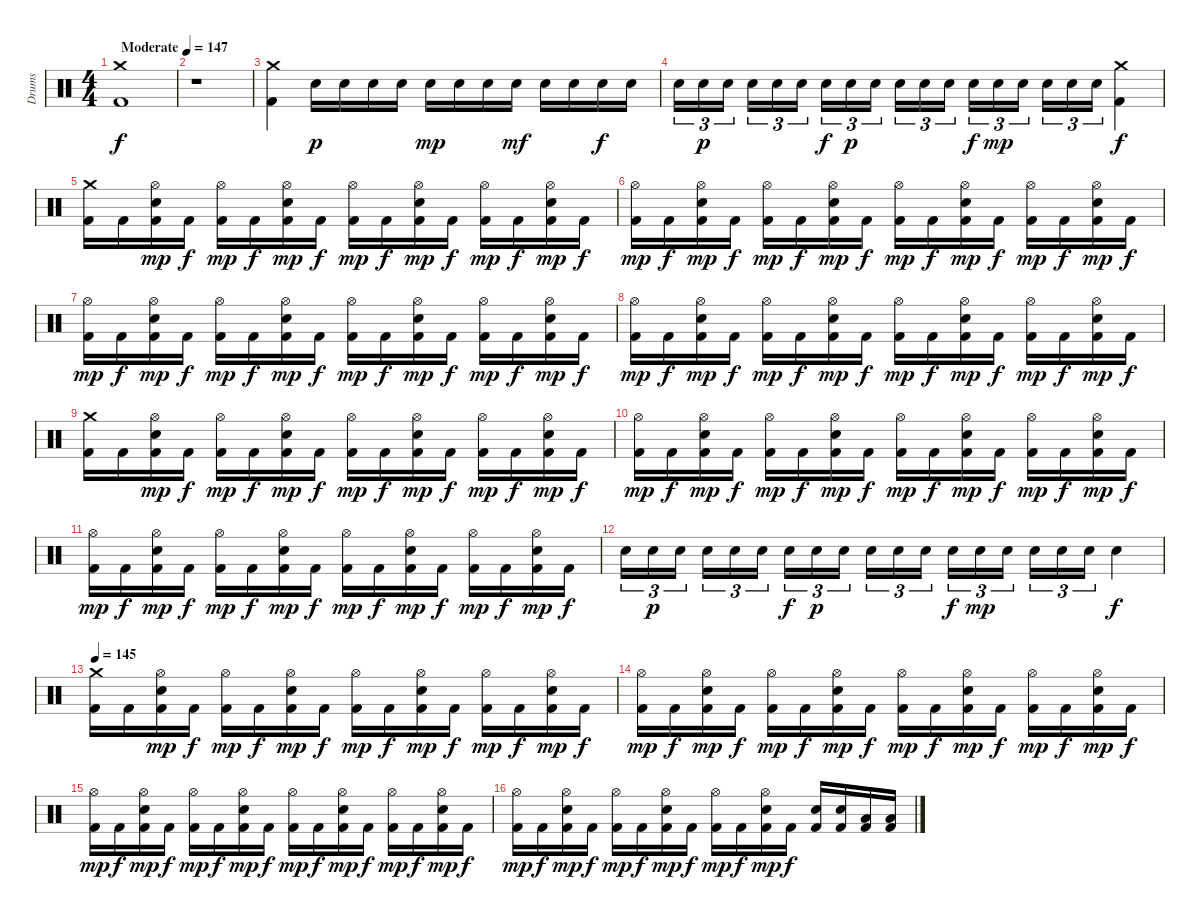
\track ("Drums" "Drums") {instrument percussion}
\staff {score}
\articulation defaults
\ts (4 4)
\tempo (147 "Moderate")
\clef neutral
\ks c
("Crash medium (hit)" "Kick (hit) 2").1{dy f} |
r.1 |
("Crash medium (hit)" "Kick (hit) 2").4 "Electric Snare (hit)".16{dy p} "Electric Snare (hit)".16 "Electric Snare (hit)".16 "Electric Snare (hit)".16 "Electric Snare (hit)".16{dy mp} "Electric Snare (hit)".16 "Electric Snare (hit)".16 "Electric Snare (hit)".16{dy mf} "Electric Snare (hit)".16 "Electric Snare (hit)".16 "Electric Snare (hit)".16{dy f} "Electric Snare (hit)".16 |
"Electric Snare (hit)".16{tu (3 2)} "Electric Snare (hit)".16{tu (3 2) dy p} "Electric Snare (hit)".16{tu (3 2) beam splitsecondary} "Electric Snare (hit)".16{tu (3 2)} "Electric Snare (hit)".16{tu (3 2)} "Electric Snare (hit)".16{tu (3 2)} "Electric Snare (hit)".16{tu (3 2) dy f} "Electric Snare (hit)".16{tu (3 2) dy p} "Electric Snare (hit)".16{tu (3 2) beam splitsecondary} "Electric Snare (hit)".16{tu (3 2)} "Electric Snare (hit)".16{tu (3 2)} "Electric Snare (hit)".16{tu (3 2)} "Electric Snare (hit)".16{tu (3 2) dy f} "Electric Snare (hit)".16{tu (3 2) dy mp} "Electric Snare (hit)".16{tu (3 2) beam splitsecondary} "Electric Snare (hit)".16{tu (3 2)} "Electric Snare (hit)".16{tu (3 2)} "Electric Snare (hit)".16{tu (3 2)} ("Crash medium (hit)" "Kick (hit) 2").4{dy f} |
("Crash medium (hit)" "Kick (hit) 2").16 "Kick (hit) 2".16 ("Hi-Hat (open)" "Kick (hit) 2" "Electric Snare (hit)").16{dy mp} "Kick (hit) 2".16{dy f} ("Hi-Hat (open)" "Kick (hit) 2").16{dy mp} "Kick (hit) 2".16{dy f} ("Hi-Hat (open)" "Kick (hit) 2" "Electric Snare (hit)").16{dy mp} "Kick (hit) 2".16{dy f} ("Hi-Hat (open)" "Kick (hit) 2").16{dy mp} "Kick (hit) 2".16{dy f} ("Hi-Hat (open)" "Kick (hit) 2" "Electric Snare (hit)").16{dy mp} "Kick (hit) 2".16{dy f} ("Hi-Hat (open)" "Kick (hit) 2").16{dy mp} "Kick (hit) 2".16{dy f} ("Hi-Hat (open)" "Kick (hit) 2" "Electric Snare (hit)").16{dy mp} "Kick (hit) 2".16{dy f} |
("Hi-Hat (open)" "Kick (hit) 2").16{dy mp} "Kick (hit) 2".16{dy f} ("Hi-Hat (open)" "Kick (hit) 2" "Electric Snare (hit)").16{dy mp} "Kick (hit) 2".16{dy f} ("Hi-Hat (open)" "Kick (hit) 2").16{dy mp} "Kick (hit) 2".16{dy f} ("Hi-Hat (open)" "Kick (hit) 2" "Electric Snare (hit)").16{dy mp} "Kick (hit) 2".16{dy f} ("Hi-Hat (open)" "Kick (hit) 2").16{dy mp} "Kick (hit) 2".16{dy f} ("Hi-Hat (open)" "Kick (hit) 2" "Electric Snare (hit)").16{dy mp} "Kick (hit) 2".16{dy f} ("Hi-Hat (open)" "Kick (hit) 2").16{dy mp} "Kick (hit) 2".16{dy f} ("Hi-Hat (open)" "Kick (hit) 2" "Electric Snare (hit)").16{dy mp} "Kick (hit) 2".16{dy f} |
("Hi-Hat (open)" "Kick (hit) 2").16{dy mp} "Kick (hit) 2".16{dy f} ("Hi-Hat (open)" "Kick (hit) 2" "Electric Snare (hit)").16{dy mp} "Kick (hit) 2".16{dy f} ("Hi-Hat (open)" "Kick (hit) 2").16{dy mp} "Kick (hit) 2".16{dy f} ("Hi-Hat (open)" "Kick (hit) 2" "Electric Snare (hit)").16{dy mp} "Kick (hit) 2".16{dy f} ("Hi-Hat (open)" "Kick (hit) 2").16{dy mp} "Kick (hit) 2".16{dy f} ("Hi-Hat (open)" "Kick (hit) 2" "Electric Snare (hit)").16{dy mp} "Kick (hit) 2".16{dy f} ("Hi-Hat (open)" "Kick (hit) 2").16{dy mp} "Kick (hit) 2".16{dy f} ("Hi-Hat (open)" "Kick (hit) 2" "Electric Snare (hit)").16{dy mp} "Kick (hit) 2".16{dy f} |
("Hi-Hat (open)" "Kick (hit) 2").16{dy mp} "Kick (hit) 2".16{dy f} ("Hi-Hat (open)" "Kick (hit) 2" "Electric Snare (hit)").16{dy mp} "Kick (hit) 2".16{dy f} ("Hi-Hat (open)" "Kick (hit) 2").16{dy mp} "Kick (hit) 2".16{dy f} ("Hi-Hat (open)" "Kick (hit) 2" "Electric Snare (hit)").16{dy mp} "Kick (hit) 2".16{dy f} ("Hi-Hat (open)" "Kick (hit) 2").16{dy mp} "Kick (hit) 2".16{dy f} ("Hi-Hat (open)" "Kick (hit) 2" "Electric Snare (hit)").16{dy mp} "Kick (hit) 2".16{dy f} ("Hi-Hat (open)" "Kick (hit) 2").16{dy mp} "Kick (hit) 2".16{dy f} ("Hi-Hat (open)" "Kick (hit) 2" "Electric Snare (hit)").16{dy mp} "Kick (hit) 2".16{dy f} |
("Crash medium (hit)" "Kick (hit) 2").16 "Kick (hit) 2".16 ("Hi-Hat (open)" "Kick (hit) 2" "Electric Snare (hit)").16{dy mp} "Kick (hit) 2".16{dy f} ("Hi-Hat (open)" "Kick (hit) 2").16{dy mp} "Kick (hit) 2".16{dy f} ("Hi-Hat (open)" "Kick (hit) 2" "Electric Snare (hit)").16{dy mp} "Kick (hit) 2".16{dy f} ("Hi-Hat (open)" "Kick (hit) 2").16{dy mp} "Kick (hit) 2".16{dy f} ("Hi-Hat (open)" "Kick (hit) 2" "Electric Snare (hit)").16{dy mp} "Kick (hit) 2".16{dy f} ("Hi-Hat (open)" "Kick (hit) 2").16{dy mp} "Kick (hit) 2".16{dy f} ("Hi-Hat (open)" "Kick (hit) 2" "Electric Snare (hit)").16{dy mp} "Kick (hit) 2".16{dy f} |
("Hi-Hat (open)" "Kick (hit) 2").16{dy mp} "Kick (hit) 2".16{dy f} ("Hi-Hat (open)" "Kick (hit) 2" "Electric Snare (hit)").16{dy mp} "Kick (hit) 2".16{dy f} ("Hi-Hat (open)" "Kick (hit) 2").16{dy mp} "Kick (hit) 2".16{dy f} ("Hi-Hat (open)" "Kick (hit) 2" "Electric Snare (hit)").16{dy mp} "Kick (hit) 2".16{dy f} ("Hi-Hat (open)" "Kick (hit) 2").16{dy mp} "Kick (hit) 2".16{dy f} ("Hi-Hat (open)" "Kick (hit) 2" "Electric Snare (hit)").16{dy mp} "Kick (hit) 2".16{dy f} ("Hi-Hat (open)" "Kick (hit) 2").16{dy mp} "Kick (hit) 2".16{dy f} ("Hi-Hat (open)" "Kick (hit) 2" "Electric Snare (hit)").16{dy mp} "Kick (hit) 2".16{dy f} |
("Hi-Hat (open)" "Kick (hit) 2").16{dy mp} "Kick (hit) 2".16{dy f} ("Hi-Hat (open)" "Kick (hit) 2" "Electric Snare (hit)").16{dy mp} "Kick (hit) 2".16{dy f} ("Hi-Hat (open)" "Kick (hit) 2").16{dy mp} "Kick (hit) 2".16{dy f} ("Hi-Hat (open)" "Kick (hit) 2" "Electric Snare (hit)").16{dy mp} "Kick (hit) 2".16{dy f} ("Hi-Hat (open)" "Kick (hit) 2").16{dy mp} "Kick (hit) 2".16{dy f} ("Hi-Hat (open)" "Kick (hit) 2" "Electric Snare (hit)").16{dy mp} "Kick (hit) 2".16{dy f} ("Hi-Hat (open)" "Kick (hit) 2").16{dy mp} "Kick (hit) 2".16{dy f} ("Hi-Hat (open)" "Kick (hit) 2" "Electric Snare (hit)").16{dy mp} "Kick (hit) 2".16{dy f} |
"Electric Snare (hit)".16{tu (3 2)} "Electric Snare (hit)".16{tu (3 2) dy p} "Electric Snare (hit)".16{tu (3 2) beam splitsecondary} "Electric Snare (hit)".16{tu (3 2)} "Electric Snare (hit)".16{tu (3 2)} "Electric Snare (hit)".16{tu (3 2)} "Electric Snare (hit)".16{tu (3 2) dy f} "Electric Snare (hit)".16{tu (3 2) dy p} "Electric Snare (hit)".16{tu (3 2) beam splitsecondary} "Electric Snare (hit)".16{tu (3 2)} "Electric Snare (hit)".16{tu (3 2)} "Electric Snare (hit)".16{tu (3 2)} "Electric Snare (hit)".16{tu (3 2) dy f} "Electric Snare (hit)".16{tu (3 2) dy mp} "Electric Snare (hit)".16{tu (3 2) beam splitsecondary} "Electric Snare (hit)".16{tu (3 2)} "Electric Snare (hit)".16{tu (3 2)} "Electric Snare (hit)".16{tu (3 2)} "Electric Snare (hit)".4{dy f} |
\tempo 145
("Crash medium (hit)" "Kick (hit) 2").16 "Kick (hit) 2".16 ("Hi-Hat (open)" "Kick (hit) 2" "Electric Snare (hit)").16{dy mp} "Kick (hit) 2".16{dy f} ("Hi-Hat (open)" "Kick (hit) 2").16{dy mp} "Kick (hit) 2".16{dy f} ("Hi-Hat (open)" "Kick (hit) 2" "Electric Snare (hit)").16{dy mp} "Kick (hit) 2".16{dy f} ("Hi-Hat (open)" "Kick (hit) 2").16{dy mp} "Kick (hit) 2".16{dy f} ("Hi-Hat (open)" "Kick (hit) 2" "Electric Snare (hit)").16{dy mp} "Kick (hit) 2".16{dy f} ("Hi-Hat (open)" "Kick (hit) 2").16{dy mp} "Kick (hit) 2".16{dy f} ("Hi-Hat (open)" "Kick (hit) 2" "Electric Snare (hit)").16{dy mp} "Kick (hit) 2".16{dy f} |
("Hi-Hat (open)" "Kick (hit) 2").16{dy mp} "Kick (hit) 2".16{dy f} ("Hi-Hat (open)" "Kick (hit) 2" "Electric Snare (hit)").16{dy mp} "Kick (hit) 2".16{dy f} ("Hi-Hat (open)" "Kick (hit) 2").16{dy mp} "Kick (hit) 2".16{dy f} ("Hi-Hat (open)" "Kick (hit) 2" "Electric Snare (hit)").16{dy mp} "Kick (hit) 2".16{dy f} ("Hi-Hat (open)" "Kick (hit) 2").16{dy mp} "Kick (hit) 2".16{dy f} ("Hi-Hat (open)" "Kick (hit) 2" "Electric Snare (hit)").16{dy mp} "Kick (hit) 2".16{dy f} ("Hi-Hat (open)" "Kick (hit) 2").16{dy mp} "Kick (hit) 2".16{dy f} ("Hi-Hat (open)" "Kick (hit) 2" "Electric Snare (hit)").16{dy mp} "Kick (hit) 2".16{dy f} |
("Hi-Hat (open)" "Kick (hit) 2").16{dy mp} "Kick (hit) 2".16{dy f} ("Hi-Hat (open)" "Kick (hit) 2" "Electric Snare (hit)").16{dy mp} "Kick (hit) 2".16{dy f} ("Hi-Hat (open)" "Kick (hit) 2").16{dy mp} "Kick (hit) 2".16{dy f} ("Hi-Hat (open)" "Kick (hit) 2" "Electric Snare (hit)").16{dy mp} "Kick (hit) 2".16{dy f} ("Hi-Hat (open)" "Kick (hit) 2").16{dy mp} "Kick (hit) 2".16{dy f} ("Hi-Hat (open)" "Kick (hit) 2" "Electric Snare (hit)").16{dy mp} "Kick (hit) 2".16{dy f} ("Hi-Hat (open)" "Kick (hit) 2").16{dy mp} "Kick (hit) 2".16{dy f} ("Hi-Hat (open)" "Kick (hit) 2" "Electric Snare (hit)").16{dy mp} "Kick (hit) 2".16{dy f} |
("Hi-Hat (open)" "Kick (hit) 2").16{dy mp} "Kick (hit) 2".16{dy f} ("Hi-Hat (open)" "Kick (hit) 2" "Electric Snare (hit)").16{dy mp} "Kick (hit) 2".16{dy f} ("Hi-Hat (open)" "Kick (hit) 2").16{dy mp} "Kick (hit) 2".16{dy f} ("Hi-Hat (open)" "Kick (hit) 2" "Electric Snare (hit)").16{dy mp} "Kick (hit) 2".16{dy f} ("Hi-Hat (open)" "Kick (hit) 2").16{dy mp} "Kick (hit) 2".16{dy f} ("Hi-Hat (open)" "Kick (hit) 2" "Electric Snare (hit)").16{dy mp} "Kick (hit) 2".16{dy f} ("Electric Snare (hit)" "Kick (hit) 2").16 ("Electric Snare (hit)" "Kick (hit) 2").16 ("Low Tom (hit)" "Kick (hit) 2").16 ("Low Tom (hit)" "Kick (hit) 2").16
